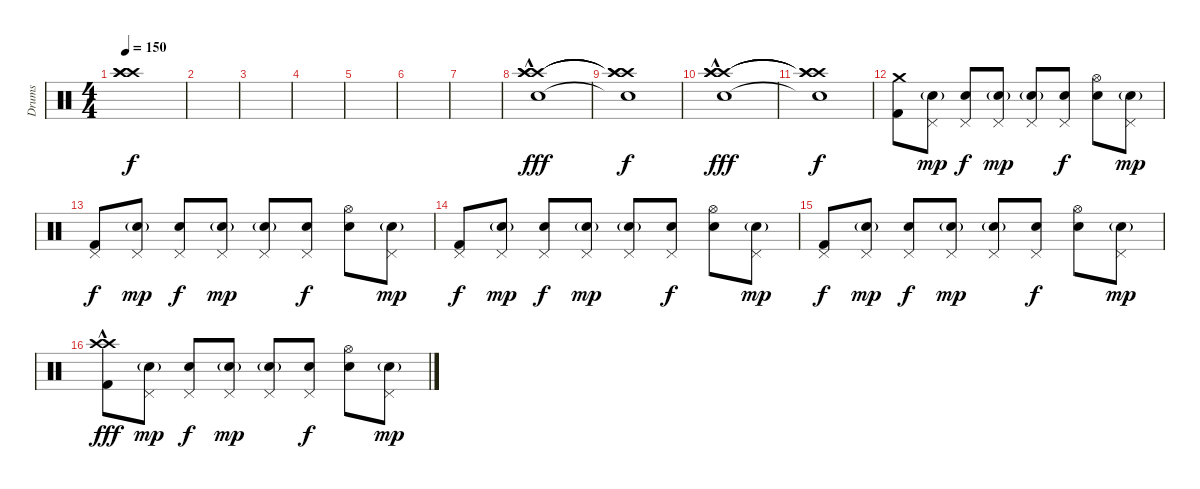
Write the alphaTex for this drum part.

\track ("Drums" "Drums") {instrument percussion}
\staff {score}
\articulation defaults
\ts (4 4)
\tempo 150
\clef neutral
\ks c
("Crash high (hit)"{t} "Crash high (hit)"{t} "Crash high (hit)"{t}).1{dy f} |
|
|
|
|
|
|
("Crash high (hit)"{hac} "Crash high (hit)"{hac} "Crash high (hit)"{hac} "Snare (hit) 2"{hac}).1{dy fff} |
("Crash high (hit)"{t} "Crash high (hit)"{t} "Crash high (hit)"{t} "Snare (hit) 2"{t}).1{dy f} |
("Crash high (hit)"{hac} "Crash high (hit)"{hac} "Crash high (hit)"{hac} "Snare (hit) 2"{hac}).1{dy fff} |
("Crash high (hit)"{t} "Crash high (hit)"{t} "Crash high (hit)"{t} "Snare (hit) 2"{t}).1{dy f} |
("Crash medium (hit)" "Kick (hit) 2").8 ("Pedal Hi-Hat (hit)" "Electric Snare (hit)"{g}).8{dy mp} ("Pedal Hi-Hat (hit)" "Electric Snare (hit)").8{dy f} ("Pedal Hi-Hat (hit)" "Electric Snare (hit)"{g}).8{dy mp} ("Pedal Hi-Hat (hit)" "Electric Snare (hit)"{g}).8 ("Pedal Hi-Hat (hit)" "Electric Snare (hit)").8{dy f} ("Hi-Hat (open)" "Electric Snare (hit)").8 ("Pedal Hi-Hat (hit)" "Electric Snare (hit)"{g}).8{dy mp} |
("Pedal Hi-Hat (hit)" "Kick (hit) 2").8{dy f} ("Pedal Hi-Hat (hit)" "Electric Snare (hit)"{g}).8{dy mp} ("Pedal Hi-Hat (hit)" "Electric Snare (hit)").8{dy f} ("Pedal Hi-Hat (hit)" "Electric Snare (hit)"{g}).8{dy mp} ("Pedal Hi-Hat (hit)" "Electric Snare (hit)"{g}).8 ("Pedal Hi-Hat (hit)" "Electric Snare (hit)").8{dy f} ("Hi-Hat (open)" "Electric Snare (hit)").8 ("Pedal Hi-Hat (hit)" "Electric Snare (hit)"{g}).8{dy mp} |
("Pedal Hi-Hat (hit)" "Kick (hit) 2").8{dy f} ("Pedal Hi-Hat (hit)" "Electric Snare (hit)"{g}).8{dy mp} ("Pedal Hi-Hat (hit)" "Electric Snare (hit)").8{dy f} ("Pedal Hi-Hat (hit)" "Electric Snare (hit)"{g}).8{dy mp} ("Pedal Hi-Hat (hit)" "Electric Snare (hit)"{g}).8 ("Pedal Hi-Hat (hit)" "Electric Snare (hit)").8{dy f} ("Hi-Hat (open)" "Electric Snare (hit)").8 ("Pedal Hi-Hat (hit)" "Electric Snare (hit)"{g}).8{dy mp} |
("Pedal Hi-Hat (hit)" "Kick (hit) 2").8{dy f} ("Pedal Hi-Hat (hit)" "Electric Snare (hit)"{g}).8{dy mp} ("Pedal Hi-Hat (hit)" "Electric Snare (hit)").8{dy f} ("Pedal Hi-Hat (hit)" "Electric Snare (hit)"{g}).8{dy mp} ("Pedal Hi-Hat (hit)" "Electric Snare (hit)"{g}).8 ("Pedal Hi-Hat (hit)" "Electric Snare (hit)").8{dy f} ("Hi-Hat (open)" "Electric Snare (hit)").8 ("Pedal Hi-Hat (hit)" "Electric Snare (hit)"{g}).8{dy mp} |
("Crash high (hit)"{hac} "Crash high (hit)"{hac} "Kick (hit) 2").8{dy fff} ("Pedal Hi-Hat (hit)" "Electric Snare (hit)"{g}).8{dy mp} ("Pedal Hi-Hat (hit)" "Electric Snare (hit)").8{dy f} ("Pedal Hi-Hat (hit)" "Electric Snare (hit)"{g}).8{dy mp} ("Pedal Hi-Hat (hit)" "Electric Snare (hit)"{g}).8 ("Pedal Hi-Hat (hit)" "Electric Snare (hit)").8{dy f} ("Hi-Hat (open)" "Electric Snare (hit)").8 ("Pedal Hi-Hat (hit)" "Electric Snare (hit)"{g}).8{dy mp}
